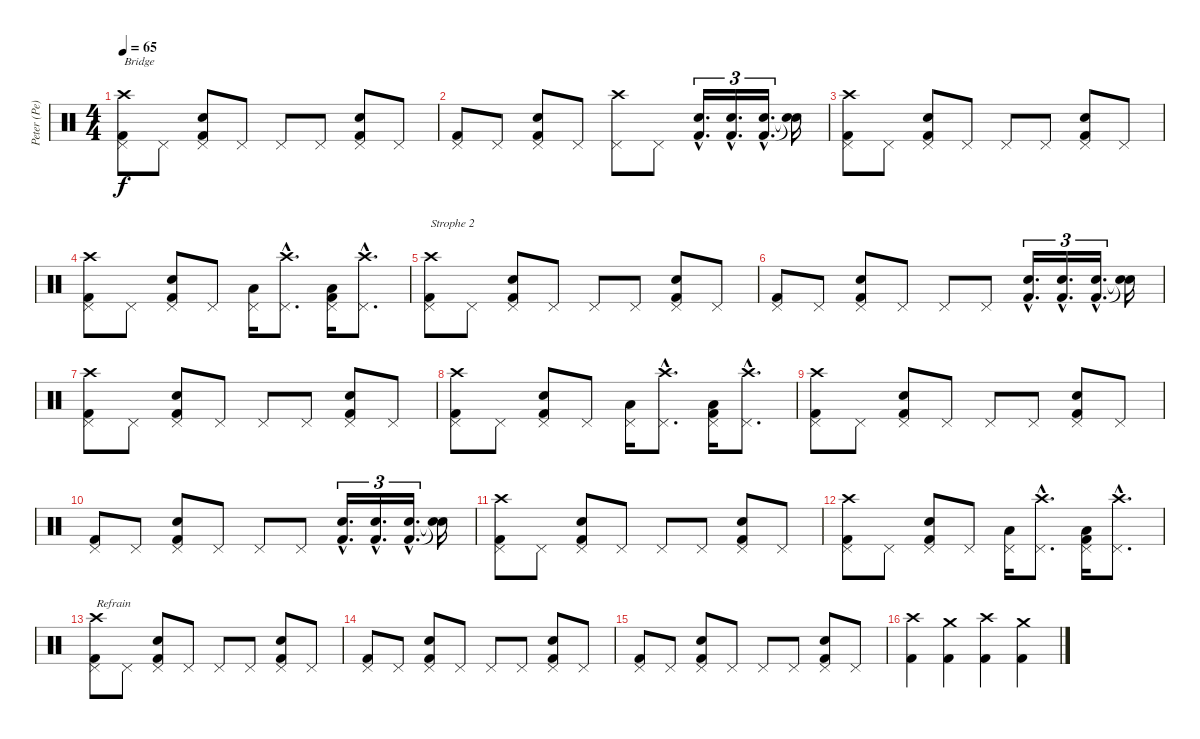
\track ("Peter (Pe) Schorowsky" "Peter (Pe)") {instrument percussion}
\staff {score}
\articulation defaults
\ts (4 4)
\tempo 65
\clef neutral
\ks c
("Crash high (hit)" "Pedal Hi-Hat (hit)" "Kick (hit) 2").8{txt "Bridge" dy f} "Pedal Hi-Hat (hit)".8 ("Pedal Hi-Hat (hit)" "Snare (hit) 2" "Kick (hit) 2").8 "Pedal Hi-Hat (hit)".8 "Pedal Hi-Hat (hit)".8 "Pedal Hi-Hat (hit)".8 ("Pedal Hi-Hat (hit)" "Snare (hit) 2" "Kick (hit) 2").8 "Pedal Hi-Hat (hit)".8 |
("Pedal Hi-Hat (hit)" "Kick (hit) 2").8 "Pedal Hi-Hat (hit)".8 ("Pedal Hi-Hat (hit)" "Snare (hit) 2" "Kick (hit) 2").8 "Pedal Hi-Hat (hit)".8 ("Crash high (hit)" "Pedal Hi-Hat (hit)").8 "Pedal Hi-Hat (hit)".8 ("Snare (hit) 2"{hac} "Kick (hit) 2"{hac}).16{d tu (3 2)} ("Snare (hit) 2"{hac} "Kick (hit) 2"{hac}).16{d tu (3 2)} ("Snare (hit) 2"{hac} "Kick (hit) 2"{hac}).16{d tu (3 2)} ("Snare (hit)"{t} "Snare (hit)"{t}).16 |
("Crash high (hit)" "Pedal Hi-Hat (hit)" "Kick (hit) 2").8 "Pedal Hi-Hat (hit)".8 ("Pedal Hi-Hat (hit)" "Snare (hit) 2" "Kick (hit) 2").8 "Pedal Hi-Hat (hit)".8 "Pedal Hi-Hat (hit)".8 "Pedal Hi-Hat (hit)".8 ("Pedal Hi-Hat (hit)" "Snare (hit) 2" "Kick (hit) 2").8 "Pedal Hi-Hat (hit)".8 |
("Crash high (hit)" "Pedal Hi-Hat (hit)" "Kick (hit) 2").8 "Pedal Hi-Hat (hit)".8 ("Pedal Hi-Hat (hit)" "Snare (hit) 2" "Kick (hit) 2").8 "Pedal Hi-Hat (hit)".8 ("Pedal Hi-Hat (hit)" "Low Tom (hit)").16 ("Crash high (hit)"{hac} "Pedal Hi-Hat (hit)"{hac}).8{d} ("Pedal Hi-Hat (hit)" "Low Tom (hit)" "Kick (hit) 2").16 ("Crash high (hit)"{hac} "Pedal Hi-Hat (hit)"{hac}).8{d} |
("Crash high (hit)" "Pedal Hi-Hat (hit)" "Kick (hit) 2").8{txt "Strophe 2"} "Pedal Hi-Hat (hit)".8 ("Pedal Hi-Hat (hit)" "Snare (hit) 2" "Kick (hit) 2").8 "Pedal Hi-Hat (hit)".8 "Pedal Hi-Hat (hit)".8 "Pedal Hi-Hat (hit)".8 ("Pedal Hi-Hat (hit)" "Snare (hit) 2" "Kick (hit) 2").8 "Pedal Hi-Hat (hit)".8 |
("Pedal Hi-Hat (hit)" "Kick (hit) 2").8 "Pedal Hi-Hat (hit)".8 ("Pedal Hi-Hat (hit)" "Snare (hit) 2" "Kick (hit) 2").8 "Pedal Hi-Hat (hit)".8 "Pedal Hi-Hat (hit)".8 "Pedal Hi-Hat (hit)".8 ("Snare (hit) 2"{hac} "Kick (hit) 2"{hac}).16{d tu (3 2)} ("Snare (hit) 2"{hac} "Kick (hit) 2"{hac}).16{d tu (3 2)} ("Snare (hit) 2"{hac} "Kick (hit) 2"{hac}).16{d tu (3 2)} ("Snare (hit)"{t} "Snare (hit)"{t}).16 |
("Crash high (hit)" "Pedal Hi-Hat (hit)" "Kick (hit) 2").8 "Pedal Hi-Hat (hit)".8 ("Pedal Hi-Hat (hit)" "Snare (hit) 2" "Kick (hit) 2").8 "Pedal Hi-Hat (hit)".8 "Pedal Hi-Hat (hit)".8 "Pedal Hi-Hat (hit)".8 ("Pedal Hi-Hat (hit)" "Snare (hit) 2" "Kick (hit) 2").8 "Pedal Hi-Hat (hit)".8 |
("Crash high (hit)" "Pedal Hi-Hat (hit)" "Kick (hit) 2").8 "Pedal Hi-Hat (hit)".8 ("Pedal Hi-Hat (hit)" "Snare (hit) 2" "Kick (hit) 2").8 "Pedal Hi-Hat (hit)".8 ("Pedal Hi-Hat (hit)" "Low Tom (hit)").16 ("Crash high (hit)"{hac} "Pedal Hi-Hat (hit)"{hac}).8{d} ("Pedal Hi-Hat (hit)" "Low Tom (hit)" "Kick (hit) 2").16 ("Crash high (hit)"{hac} "Pedal Hi-Hat (hit)"{hac}).8{d} |
("Crash high (hit)" "Pedal Hi-Hat (hit)" "Kick (hit) 2").8 "Pedal Hi-Hat (hit)".8 ("Pedal Hi-Hat (hit)" "Snare (hit) 2" "Kick (hit) 2").8 "Pedal Hi-Hat (hit)".8 "Pedal Hi-Hat (hit)".8 "Pedal Hi-Hat (hit)".8 ("Pedal Hi-Hat (hit)" "Snare (hit) 2" "Kick (hit) 2").8 "Pedal Hi-Hat (hit)".8 |
("Pedal Hi-Hat (hit)" "Kick (hit) 2").8 "Pedal Hi-Hat (hit)".8 ("Pedal Hi-Hat (hit)" "Snare (hit) 2" "Kick (hit) 2").8 "Pedal Hi-Hat (hit)".8 "Pedal Hi-Hat (hit)".8 "Pedal Hi-Hat (hit)".8 ("Snare (hit) 2"{hac} "Kick (hit) 2"{hac}).16{d tu (3 2)} ("Snare (hit) 2"{hac} "Kick (hit) 2"{hac}).16{d tu (3 2)} ("Snare (hit) 2"{hac} "Kick (hit) 2"{hac}).16{d tu (3 2)} ("Snare (hit)"{t} "Snare (hit)"{t}).16 |
("Crash high (hit)" "Pedal Hi-Hat (hit)" "Kick (hit) 2").8 "Pedal Hi-Hat (hit)".8 ("Pedal Hi-Hat (hit)" "Snare (hit) 2" "Kick (hit) 2").8 "Pedal Hi-Hat (hit)".8 "Pedal Hi-Hat (hit)".8 "Pedal Hi-Hat (hit)".8 ("Pedal Hi-Hat (hit)" "Snare (hit) 2" "Kick (hit) 2").8 "Pedal Hi-Hat (hit)".8 |
("Crash high (hit)" "Pedal Hi-Hat (hit)" "Kick (hit) 2").8 "Pedal Hi-Hat (hit)".8 ("Pedal Hi-Hat (hit)" "Snare (hit) 2" "Kick (hit) 2").8 "Pedal Hi-Hat (hit)".8 ("Pedal Hi-Hat (hit)" "Low Tom (hit)").16 ("Crash high (hit)"{hac} "Pedal Hi-Hat (hit)"{hac}).8{d} ("Pedal Hi-Hat (hit)" "Low Tom (hit)" "Kick (hit) 2").16 ("Crash high (hit)"{hac} "Pedal Hi-Hat (hit)"{hac}).8{d} |
("Crash high (hit)" "Pedal Hi-Hat (hit)" "Kick (hit) 2").8{txt "Refrain"} "Pedal Hi-Hat (hit)".8 ("Pedal Hi-Hat (hit)" "Snare (hit) 2" "Kick (hit) 2").8 "Pedal Hi-Hat (hit)".8 "Pedal Hi-Hat (hit)".8 "Pedal Hi-Hat (hit)".8 ("Pedal Hi-Hat (hit)" "Snare (hit) 2" "Kick (hit) 2").8 "Pedal Hi-Hat (hit)".8 |
("Pedal Hi-Hat (hit)" "Kick (hit) 2").8 "Pedal Hi-Hat (hit)".8 ("Pedal Hi-Hat (hit)" "Snare (hit) 2" "Kick (hit) 2").8 "Pedal Hi-Hat (hit)".8 "Pedal Hi-Hat (hit)".8 "Pedal Hi-Hat (hit)".8 ("Pedal Hi-Hat (hit)" "Snare (hit) 2" "Kick (hit) 2").8 "Pedal Hi-Hat (hit)".8 |
("Pedal Hi-Hat (hit)" "Kick (hit) 2").8 "Pedal Hi-Hat (hit)".8 ("Pedal Hi-Hat (hit)" "Snare (hit) 2" "Kick (hit) 2").8 "Pedal Hi-Hat (hit)".8 "Pedal Hi-Hat (hit)".8 "Pedal Hi-Hat (hit)".8 ("Pedal Hi-Hat (hit)" "Snare (hit) 2" "Kick (hit) 2").8 "Pedal Hi-Hat (hit)".8 |
("Crash high (hit)" "Kick (hit) 2").4 ("Crash medium (hit)" "Kick (hit) 2").4 ("Crash high (hit)" "Kick (hit) 2").4 ("Crash medium (hit)" "Kick (hit) 2").4
